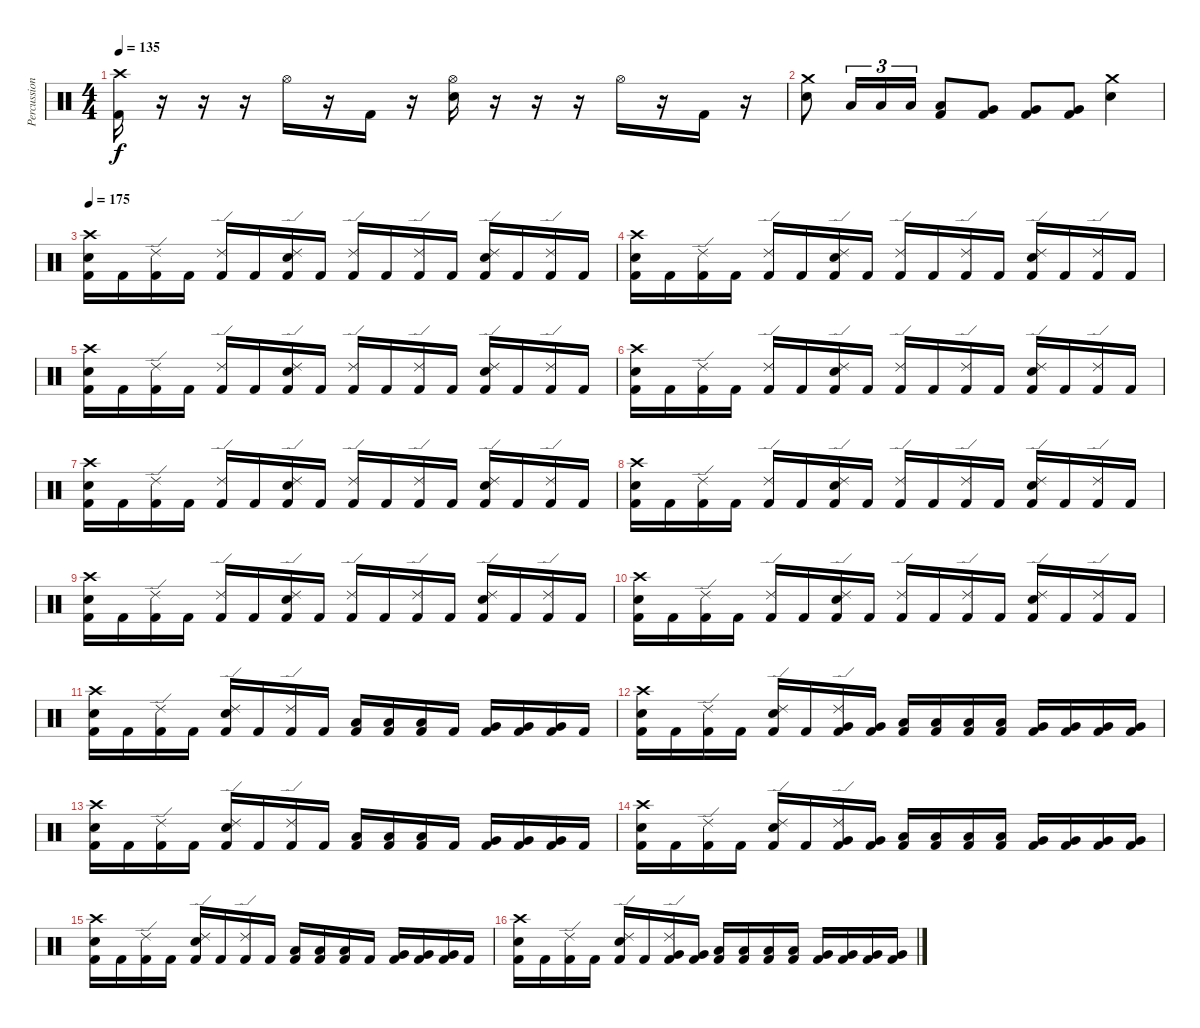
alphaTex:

\track ("Percussion" "Percussion") {instrument percussion}
\staff {score}
\articulation defaults
\ts (4 4)
\tempo 135
\clef neutral
\ks c
("Crash high (hit)" "Kick (hit) 2").16{dy f} r.16 r.16 r.16 "Hi-Hat (open)".16 r.16 "Kick (hit) 2".16 r.16 ("Hi-Hat (open)" "Snare (hit) 2").16 r.16 r.16 r.16 "Hi-Hat (open)".16 r.16 "Kick (hit) 2".16 r.16 |
("Crash medium (hit)" "Snare (hit) 2").8 "Low Tom (hit)".16{tu (3 2)} "Low Tom (hit)".16{tu (3 2)} "Low Tom (hit)".16{tu (3 2)} ("Low Tom (hit)" "Kick (hit) 2").8 ("Very Low Tom (hit)" "Kick (hit) 2").8 ("Very Low Tom (hit)" "Kick (hit) 2").8 ("Very Low Tom (hit)" "Kick (hit) 2").8 ("Crash medium (hit)" "Snare (hit) 2").4 |
\tempo 175
("Crash high (hit)" "Snare (hit) 2" "Kick (hit) 2").16 "Kick (hit) 2".16 ("Ride (edge) 2" "Kick (hit) 2").16 "Kick (hit) 2".16 ("Ride (edge) 2" "Kick (hit) 2").16 "Kick (hit) 2".16 ("Ride (edge) 2" "Snare (hit) 2" "Kick (hit) 2").16 "Kick (hit) 2".16 ("Ride (edge) 2" "Kick (hit) 2").16 "Kick (hit) 2".16 ("Ride (edge) 2" "Kick (hit) 2").16 "Kick (hit) 2".16 ("Ride (edge) 2" "Snare (hit) 2" "Kick (hit) 2").16 "Kick (hit) 2".16 ("Ride (edge) 2" "Kick (hit) 2").16 "Kick (hit) 2".16 |
("Crash high (hit)" "Snare (hit) 2" "Kick (hit) 2").16 "Kick (hit) 2".16 ("Ride (edge) 2" "Kick (hit) 2").16 "Kick (hit) 2".16 ("Ride (edge) 2" "Kick (hit) 2").16 "Kick (hit) 2".16 ("Ride (edge) 2" "Snare (hit) 2" "Kick (hit) 2").16 "Kick (hit) 2".16 ("Ride (edge) 2" "Kick (hit) 2").16 "Kick (hit) 2".16 ("Ride (edge) 2" "Kick (hit) 2").16 "Kick (hit) 2".16 ("Ride (edge) 2" "Snare (hit) 2" "Kick (hit) 2").16 "Kick (hit) 2".16 ("Ride (edge) 2" "Kick (hit) 2").16 "Kick (hit) 2".16 |
("Crash high (hit)" "Snare (hit) 2" "Kick (hit) 2").16 "Kick (hit) 2".16 ("Ride (edge) 2" "Kick (hit) 2").16 "Kick (hit) 2".16 ("Ride (edge) 2" "Kick (hit) 2").16 "Kick (hit) 2".16 ("Ride (edge) 2" "Snare (hit) 2" "Kick (hit) 2").16 "Kick (hit) 2".16 ("Ride (edge) 2" "Kick (hit) 2").16 "Kick (hit) 2".16 ("Ride (edge) 2" "Kick (hit) 2").16 "Kick (hit) 2".16 ("Ride (edge) 2" "Snare (hit) 2" "Kick (hit) 2").16 "Kick (hit) 2".16 ("Ride (edge) 2" "Kick (hit) 2").16 "Kick (hit) 2".16 |
("Crash high (hit)" "Snare (hit) 2" "Kick (hit) 2").16 "Kick (hit) 2".16 ("Ride (edge) 2" "Kick (hit) 2").16 "Kick (hit) 2".16 ("Ride (edge) 2" "Kick (hit) 2").16 "Kick (hit) 2".16 ("Ride (edge) 2" "Snare (hit) 2" "Kick (hit) 2").16 "Kick (hit) 2".16 ("Ride (edge) 2" "Kick (hit) 2").16 "Kick (hit) 2".16 ("Ride (edge) 2" "Kick (hit) 2").16 "Kick (hit) 2".16 ("Ride (edge) 2" "Snare (hit) 2" "Kick (hit) 2").16 "Kick (hit) 2".16 ("Ride (edge) 2" "Kick (hit) 2").16 "Kick (hit) 2".16 |
("Crash high (hit)" "Snare (hit) 2" "Kick (hit) 2").16 "Kick (hit) 2".16 ("Ride (edge) 2" "Kick (hit) 2").16 "Kick (hit) 2".16 ("Ride (edge) 2" "Kick (hit) 2").16 "Kick (hit) 2".16 ("Ride (edge) 2" "Snare (hit) 2" "Kick (hit) 2").16 "Kick (hit) 2".16 ("Ride (edge) 2" "Kick (hit) 2").16 "Kick (hit) 2".16 ("Ride (edge) 2" "Kick (hit) 2").16 "Kick (hit) 2".16 ("Ride (edge) 2" "Snare (hit) 2" "Kick (hit) 2").16 "Kick (hit) 2".16 ("Ride (edge) 2" "Kick (hit) 2").16 "Kick (hit) 2".16 |
("Crash high (hit)" "Snare (hit) 2" "Kick (hit) 2").16 "Kick (hit) 2".16 ("Ride (edge) 2" "Kick (hit) 2").16 "Kick (hit) 2".16 ("Ride (edge) 2" "Kick (hit) 2").16 "Kick (hit) 2".16 ("Ride (edge) 2" "Snare (hit) 2" "Kick (hit) 2").16 "Kick (hit) 2".16 ("Ride (edge) 2" "Kick (hit) 2").16 "Kick (hit) 2".16 ("Ride (edge) 2" "Kick (hit) 2").16 "Kick (hit) 2".16 ("Ride (edge) 2" "Snare (hit) 2" "Kick (hit) 2").16 "Kick (hit) 2".16 ("Ride (edge) 2" "Kick (hit) 2").16 "Kick (hit) 2".16 |
("Crash high (hit)" "Snare (hit) 2" "Kick (hit) 2").16 "Kick (hit) 2".16 ("Ride (edge) 2" "Kick (hit) 2").16 "Kick (hit) 2".16 ("Ride (edge) 2" "Kick (hit) 2").16 "Kick (hit) 2".16 ("Ride (edge) 2" "Snare (hit) 2" "Kick (hit) 2").16 "Kick (hit) 2".16 ("Ride (edge) 2" "Kick (hit) 2").16 "Kick (hit) 2".16 ("Ride (edge) 2" "Kick (hit) 2").16 "Kick (hit) 2".16 ("Ride (edge) 2" "Snare (hit) 2" "Kick (hit) 2").16 "Kick (hit) 2".16 ("Ride (edge) 2" "Kick (hit) 2").16 "Kick (hit) 2".16 |
("Crash high (hit)" "Snare (hit) 2" "Kick (hit) 2").16 "Kick (hit) 2".16 ("Ride (edge) 2" "Kick (hit) 2").16 "Kick (hit) 2".16 ("Ride (edge) 2" "Kick (hit) 2").16 "Kick (hit) 2".16 ("Ride (edge) 2" "Snare (hit) 2" "Kick (hit) 2").16 "Kick (hit) 2".16 ("Ride (edge) 2" "Kick (hit) 2").16 "Kick (hit) 2".16 ("Ride (edge) 2" "Kick (hit) 2").16 "Kick (hit) 2".16 ("Ride (edge) 2" "Snare (hit) 2" "Kick (hit) 2").16 "Kick (hit) 2".16 ("Ride (edge) 2" "Kick (hit) 2").16 "Kick (hit) 2".16 |
("Crash high (hit)" "Snare (hit) 2" "Kick (hit) 2").16 "Kick (hit) 2".16 ("Ride (edge) 2" "Kick (hit) 2").16 "Kick (hit) 2".16 ("Ride (edge) 2" "Snare (hit) 2" "Kick (hit) 2").16 "Kick (hit) 2".16 ("Ride (edge) 2" "Kick (hit) 2").16 "Kick (hit) 2".16 ("Low Tom (hit)" "Kick (hit) 2").16 ("Low Tom (hit)" "Kick (hit) 2").16 ("Low Tom (hit)" "Kick (hit) 2").16 "Kick (hit) 2".16 ("Very Low Tom (hit)" "Kick (hit) 2").16 ("Very Low Tom (hit)" "Kick (hit) 2").16 ("Very Low Tom (hit)" "Kick (hit) 2").16 "Kick (hit) 2".16 |
("Crash high (hit)" "Snare (hit) 2" "Kick (hit) 2").16 "Kick (hit) 2".16 ("Ride (edge) 2" "Kick (hit) 2").16 "Kick (hit) 2".16 ("Ride (edge) 2" "Snare (hit) 2" "Kick (hit) 2").16 "Kick (hit) 2".16 ("Ride (edge) 2" "Very Low Tom (hit)" "Kick (hit) 2").16 ("Very Low Tom (hit)" "Kick (hit) 2").16 ("Low Tom (hit)" "Kick (hit) 2").16 ("Low Tom (hit)" "Kick (hit) 2").16 ("Low Tom (hit)" "Kick (hit) 2").16 ("Low Tom (hit)" "Kick (hit) 2").16 ("Very Low Tom (hit)" "Kick (hit) 2").16 ("Very Low Tom (hit)" "Kick (hit) 2").16 ("Very Low Tom (hit)" "Kick (hit) 2").16 ("Very Low Tom (hit)" "Kick (hit) 2").16 |
("Crash high (hit)" "Snare (hit) 2" "Kick (hit) 2").16 "Kick (hit) 2".16 ("Ride (edge) 2" "Kick (hit) 2").16 "Kick (hit) 2".16 ("Ride (edge) 2" "Snare (hit) 2" "Kick (hit) 2").16 "Kick (hit) 2".16 ("Ride (edge) 2" "Kick (hit) 2").16 "Kick (hit) 2".16 ("Low Tom (hit)" "Kick (hit) 2").16 ("Low Tom (hit)" "Kick (hit) 2").16 ("Low Tom (hit)" "Kick (hit) 2").16 "Kick (hit) 2".16 ("Very Low Tom (hit)" "Kick (hit) 2").16 ("Very Low Tom (hit)" "Kick (hit) 2").16 ("Very Low Tom (hit)" "Kick (hit) 2").16 "Kick (hit) 2".16 |
("Crash high (hit)" "Snare (hit) 2" "Kick (hit) 2").16 "Kick (hit) 2".16 ("Ride (edge) 2" "Kick (hit) 2").16 "Kick (hit) 2".16 ("Ride (edge) 2" "Snare (hit) 2" "Kick (hit) 2").16 "Kick (hit) 2".16 ("Ride (edge) 2" "Very Low Tom (hit)" "Kick (hit) 2").16 ("Very Low Tom (hit)" "Kick (hit) 2").16 ("Low Tom (hit)" "Kick (hit) 2").16 ("Low Tom (hit)" "Kick (hit) 2").16 ("Low Tom (hit)" "Kick (hit) 2").16 ("Low Tom (hit)" "Kick (hit) 2").16 ("Very Low Tom (hit)" "Kick (hit) 2").16 ("Very Low Tom (hit)" "Kick (hit) 2").16 ("Very Low Tom (hit)" "Kick (hit) 2").16 ("Very Low Tom (hit)" "Kick (hit) 2").16 |
("Crash high (hit)" "Snare (hit) 2" "Kick (hit) 2").16 "Kick (hit) 2".16 ("Ride (edge) 2" "Kick (hit) 2").16 "Kick (hit) 2".16 ("Ride (edge) 2" "Snare (hit) 2" "Kick (hit) 2").16 "Kick (hit) 2".16 ("Ride (edge) 2" "Kick (hit) 2").16 "Kick (hit) 2".16 ("Low Tom (hit)" "Kick (hit) 2").16 ("Low Tom (hit)" "Kick (hit) 2").16 ("Low Tom (hit)" "Kick (hit) 2").16 "Kick (hit) 2".16 ("Very Low Tom (hit)" "Kick (hit) 2").16 ("Very Low Tom (hit)" "Kick (hit) 2").16 ("Very Low Tom (hit)" "Kick (hit) 2").16 "Kick (hit) 2".16 |
("Crash high (hit)" "Snare (hit) 2" "Kick (hit) 2").16 "Kick (hit) 2".16 ("Ride (edge) 2" "Kick (hit) 2").16 "Kick (hit) 2".16 ("Ride (edge) 2" "Snare (hit) 2" "Kick (hit) 2").16 "Kick (hit) 2".16 ("Ride (edge) 2" "Very Low Tom (hit)" "Kick (hit) 2").16 ("Very Low Tom (hit)" "Kick (hit) 2").16 ("Low Tom (hit)" "Kick (hit) 2").16 ("Low Tom (hit)" "Kick (hit) 2").16 ("Low Tom (hit)" "Kick (hit) 2").16 ("Low Tom (hit)" "Kick (hit) 2").16 ("Very Low Tom (hit)" "Kick (hit) 2").16 ("Very Low Tom (hit)" "Kick (hit) 2").16 ("Very Low Tom (hit)" "Kick (hit) 2").16 ("Very Low Tom (hit)" "Kick (hit) 2").16
